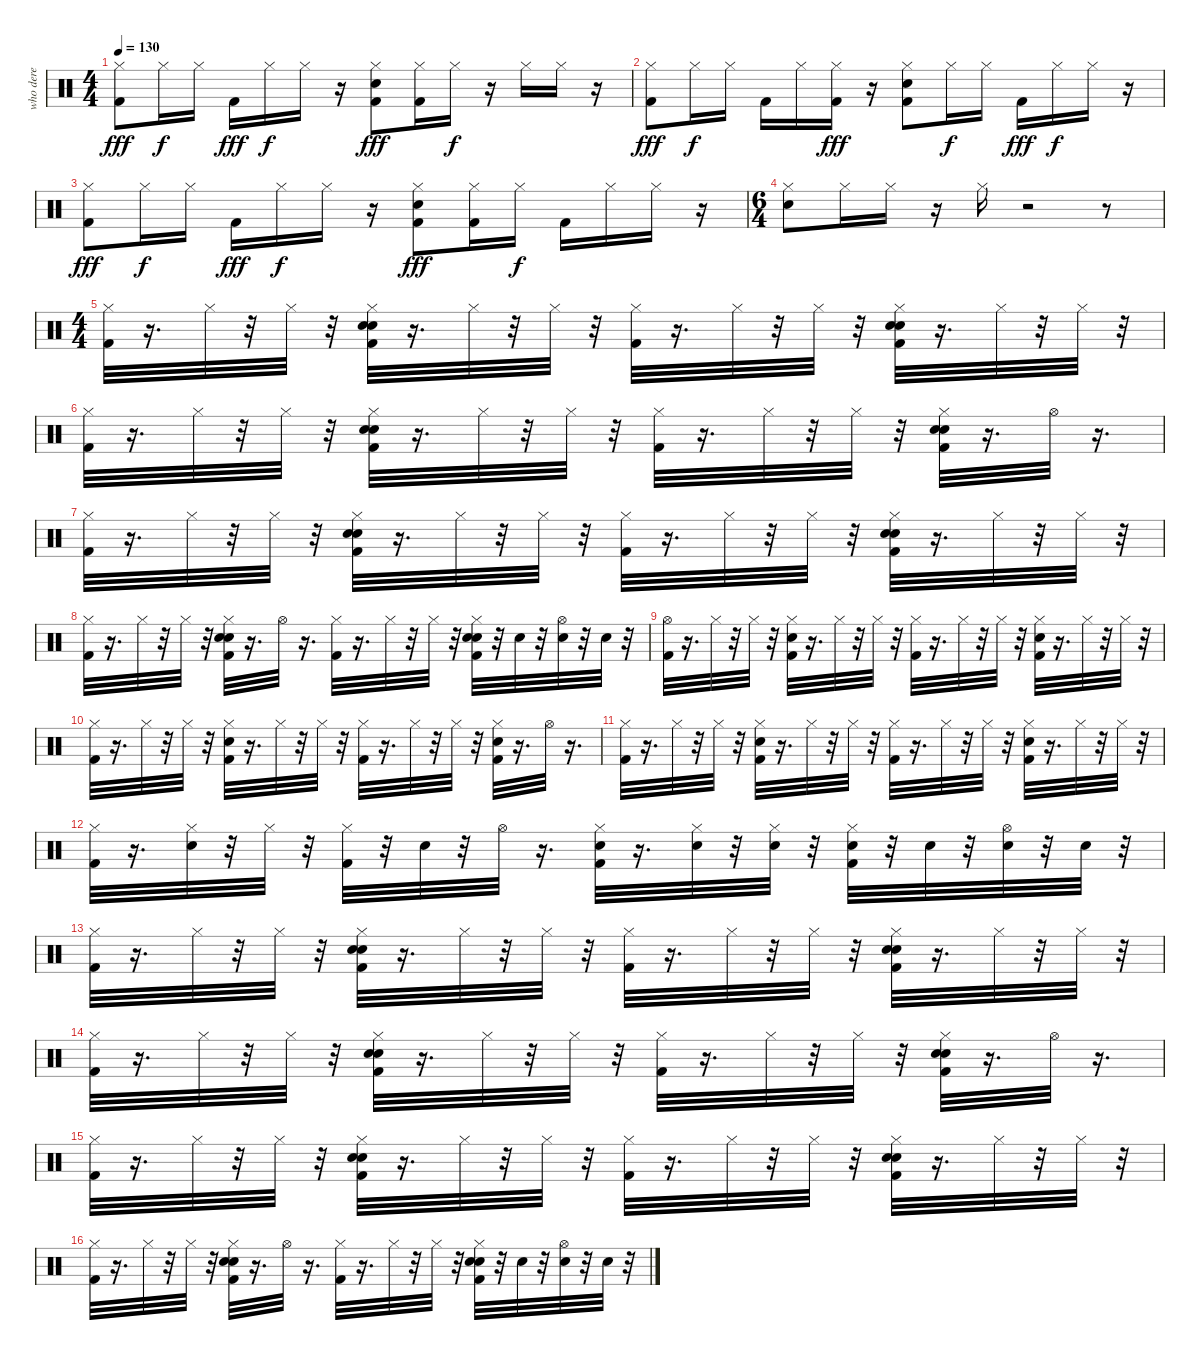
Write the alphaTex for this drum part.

\track ("who dere" "who dere") {instrument percussion}
\staff {score}
\articulation defaults
\ts (4 4)
\tempo 130
\clef neutral
\ks c
("Hi-Hat (closed)" "Kick (hit) 2").8{dy fff} "Hi-Hat (closed)".16{dy f} "Hi-Hat (closed)".16 "Kick (hit) 2".16{dy fff} "Hi-Hat (closed)".16{dy f} "Hi-Hat (closed)".16 r.16 ("Hi-Hat (closed)" "Electric Snare (hit)" "Kick (hit) 2").8{dy fff} ("Hi-Hat (closed)" "Kick (hit) 2").16 "Hi-Hat (closed)".16{dy f} r.16 "Hi-Hat (closed)".16 "Hi-Hat (closed)".16 r.16 |
("Hi-Hat (closed)" "Kick (hit) 2").8{dy fff} "Hi-Hat (closed)".16{dy f} "Hi-Hat (closed)".16 "Kick (hit) 2".16 "Hi-Hat (closed)".16 ("Hi-Hat (closed)" "Kick (hit) 2").16{dy fff} r.16 ("Hi-Hat (closed)" "Electric Snare (hit)" "Kick (hit) 2").8 "Hi-Hat (closed)".16{dy f} "Hi-Hat (closed)".16 "Kick (hit) 2".16{dy fff} "Hi-Hat (closed)".16{dy f} "Hi-Hat (closed)".16 r.16 |
("Hi-Hat (closed)" "Kick (hit) 2").8{dy fff} "Hi-Hat (closed)".16{dy f} "Hi-Hat (closed)".16 "Kick (hit) 2".16{dy fff} "Hi-Hat (closed)".16{dy f} "Hi-Hat (closed)".16 r.16 ("Hi-Hat (closed)" "Electric Snare (hit)" "Kick (hit) 2").8{dy fff} ("Hi-Hat (closed)" "Kick (hit) 2").16 "Hi-Hat (closed)".16{dy f} "Kick (hit) 2".16 "Hi-Hat (closed)".16 "Hi-Hat (closed)".16 r.16 |
\ts (6 4)
("Hi-Hat (closed)" "Electric Snare (hit)").8 "Hi-Hat (closed)".16 "Hi-Hat (closed)".16 r.16 "Hi-Hat (closed)".16 r.2 r.8 |
\ts (4 4)
("Hi-Hat (closed)" "Kick (hit) 2").32 r.16{d} "Hi-Hat (closed)".32 r.32 "Hi-Hat (closed)".32 r.32 ("Hi-Hat (closed)" "Snare (hit) 2" "Kick (hit) 2" "Hand Clap (hit)").32 r.16{d} "Hi-Hat (closed)".32 r.32 "Hi-Hat (closed)".32 r.32 ("Hi-Hat (closed)" "Kick (hit) 2").32 r.16{d} "Hi-Hat (closed)".32 r.32 "Hi-Hat (closed)".32 r.32 ("Hi-Hat (closed)" "Snare (hit) 2" "Kick (hit) 2" "Hand Clap (hit)").32 r.16{d} "Hi-Hat (closed)".32 r.32 "Hi-Hat (closed)".32 r.32 |
("Hi-Hat (closed)" "Kick (hit) 2").32 r.16{d} "Hi-Hat (closed)".32 r.32 "Hi-Hat (closed)".32 r.32 ("Hi-Hat (closed)" "Snare (hit) 2" "Kick (hit) 2" "Hand Clap (hit)").32 r.16{d} "Hi-Hat (closed)".32 r.32 "Hi-Hat (closed)".32 r.32 ("Hi-Hat (closed)" "Kick (hit) 2").32 r.16{d} "Hi-Hat (closed)".32 r.32 "Hi-Hat (closed)".32 r.32 ("Hi-Hat (closed)" "Snare (hit) 2" "Kick (hit) 2" "Hand Clap (hit)").32 r.16{d} "Hi-Hat (open)".32 r.16{d} |
("Hi-Hat (closed)" "Kick (hit) 2").32 r.16{d} "Hi-Hat (closed)".32 r.32 "Hi-Hat (closed)".32 r.32 ("Hi-Hat (closed)" "Snare (hit) 2" "Kick (hit) 2" "Hand Clap (hit)").32 r.16{d} "Hi-Hat (closed)".32 r.32 "Hi-Hat (closed)".32 r.32 ("Hi-Hat (closed)" "Kick (hit) 2").32 r.16{d} "Hi-Hat (closed)".32 r.32 "Hi-Hat (closed)".32 r.32 ("Hi-Hat (closed)" "Snare (hit) 2" "Kick (hit) 2" "Hand Clap (hit)").32 r.16{d} "Hi-Hat (closed)".32 r.32 "Hi-Hat (closed)".32 r.32 |
("Hi-Hat (closed)" "Kick (hit) 2").32 r.16{d} "Hi-Hat (closed)".32 r.32 "Hi-Hat (closed)".32 r.32 ("Hi-Hat (closed)" "Snare (hit) 2" "Kick (hit) 2" "Hand Clap (hit)").32 r.16{d} "Hi-Hat (open)".32 r.16{d} ("Hi-Hat (closed)" "Kick (hit) 2").32 r.16{d} "Hi-Hat (closed)".32 r.32 "Hi-Hat (closed)".32 r.32 ("Hi-Hat (closed)" "Snare (hit) 2" "Kick (hit) 2" "Hand Clap (hit)").32 r.32 "Hand Clap (hit)".32 r.32 ("Hi-Hat (open)" "Hand Clap (hit)").32 r.32 "Hand Clap (hit)".32 r.32 |
("Hi-Hat (open)" "Kick (hit) 2").32 r.16{d} "Hi-Hat (closed)".32 r.32 "Hi-Hat (closed)".32 r.32 ("Hi-Hat (closed)" "Snare (hit) 2" "Kick (hit) 2").32 r.16{d} "Hi-Hat (closed)".32 r.32 "Hi-Hat (closed)".32 r.32 ("Hi-Hat (closed)" "Kick (hit) 2").32 r.16{d} "Hi-Hat (closed)".32 r.32 "Hi-Hat (closed)".32 r.32 ("Hi-Hat (closed)" "Snare (hit) 2" "Kick (hit) 2").32 r.16{d} "Hi-Hat (closed)".32 r.32 "Hi-Hat (closed)".32 r.32 |
("Hi-Hat (closed)" "Kick (hit) 2").32 r.16{d} "Hi-Hat (closed)".32 r.32 "Hi-Hat (closed)".32 r.32 ("Hi-Hat (closed)" "Snare (hit) 2" "Kick (hit) 2").32 r.16{d} "Hi-Hat (closed)".32 r.32 "Hi-Hat (closed)".32 r.32 ("Hi-Hat (closed)" "Kick (hit) 2").32 r.16{d} "Hi-Hat (closed)".32 r.32 "Hi-Hat (closed)".32 r.32 ("Hi-Hat (closed)" "Snare (hit) 2" "Kick (hit) 2").32 r.16{d} "Hi-Hat (open)".32 r.16{d} |
("Hi-Hat (closed)" "Kick (hit) 2").32 r.16{d} "Hi-Hat (closed)".32 r.32 "Hi-Hat (closed)".32 r.32 ("Hi-Hat (closed)" "Snare (hit) 2" "Kick (hit) 2").32 r.16{d} "Hi-Hat (closed)".32 r.32 "Hi-Hat (closed)".32 r.32 ("Hi-Hat (closed)" "Kick (hit) 2").32 r.16{d} "Hi-Hat (closed)".32 r.32 "Hi-Hat (closed)".32 r.32 ("Hi-Hat (closed)" "Snare (hit) 2" "Kick (hit) 2").32 r.16{d} "Hi-Hat (closed)".32 r.32 "Hi-Hat (closed)".32 r.32 |
("Hi-Hat (closed)" "Kick (hit) 2").32 r.16{d} ("Hi-Hat (closed)" "Snare (hit) 2").32 r.32 "Hi-Hat (closed)".32 r.32 ("Hi-Hat (closed)" "Kick (hit) 2").32 r.32 "Snare (hit) 2".32 r.32 "Hi-Hat (open)".32 r.16{d} ("Hi-Hat (closed)" "Snare (hit) 2" "Kick (hit) 2").32 r.16{d} ("Hi-Hat (closed)" "Snare (hit) 2").32 r.32 ("Hi-Hat (closed)" "Snare (hit) 2").32 r.32 ("Hi-Hat (closed)" "Snare (hit) 2" "Kick (hit) 2").32 r.32 "Snare (hit) 2".32 r.32 ("Hi-Hat (open)" "Snare (hit) 2").32 r.32 "Snare (hit) 2".32 r.32 |
("Hi-Hat (closed)" "Kick (hit) 2").32 r.16{d} "Hi-Hat (closed)".32 r.32 "Hi-Hat (closed)".32 r.32 ("Hi-Hat (closed)" "Snare (hit) 2" "Kick (hit) 2" "Hand Clap (hit)").32 r.16{d} "Hi-Hat (closed)".32 r.32 "Hi-Hat (closed)".32 r.32 ("Hi-Hat (closed)" "Kick (hit) 2").32 r.16{d} "Hi-Hat (closed)".32 r.32 "Hi-Hat (closed)".32 r.32 ("Hi-Hat (closed)" "Snare (hit) 2" "Kick (hit) 2" "Hand Clap (hit)").32 r.16{d} "Hi-Hat (closed)".32 r.32 "Hi-Hat (closed)".32 r.32 |
("Hi-Hat (closed)" "Kick (hit) 2").32 r.16{d} "Hi-Hat (closed)".32 r.32 "Hi-Hat (closed)".32 r.32 ("Hi-Hat (closed)" "Snare (hit) 2" "Kick (hit) 2" "Hand Clap (hit)").32 r.16{d} "Hi-Hat (closed)".32 r.32 "Hi-Hat (closed)".32 r.32 ("Hi-Hat (closed)" "Kick (hit) 2").32 r.16{d} "Hi-Hat (closed)".32 r.32 "Hi-Hat (closed)".32 r.32 ("Hi-Hat (closed)" "Snare (hit) 2" "Kick (hit) 2" "Hand Clap (hit)").32 r.16{d} "Hi-Hat (open)".32 r.16{d} |
("Hi-Hat (closed)" "Kick (hit) 2").32 r.16{d} "Hi-Hat (closed)".32 r.32 "Hi-Hat (closed)".32 r.32 ("Hi-Hat (closed)" "Snare (hit) 2" "Kick (hit) 2" "Hand Clap (hit)").32 r.16{d} "Hi-Hat (closed)".32 r.32 "Hi-Hat (closed)".32 r.32 ("Hi-Hat (closed)" "Kick (hit) 2").32 r.16{d} "Hi-Hat (closed)".32 r.32 "Hi-Hat (closed)".32 r.32 ("Hi-Hat (closed)" "Snare (hit) 2" "Kick (hit) 2" "Hand Clap (hit)").32 r.16{d} "Hi-Hat (closed)".32 r.32 "Hi-Hat (closed)".32 r.32 |
("Hi-Hat (closed)" "Kick (hit) 2").32 r.16{d} "Hi-Hat (closed)".32 r.32 "Hi-Hat (closed)".32 r.32 ("Hi-Hat (closed)" "Snare (hit) 2" "Kick (hit) 2" "Hand Clap (hit)").32 r.16{d} "Hi-Hat (open)".32 r.16{d} ("Hi-Hat (closed)" "Kick (hit) 2").32 r.16{d} "Hi-Hat (closed)".32 r.32 "Hi-Hat (closed)".32 r.32 ("Hi-Hat (closed)" "Snare (hit) 2" "Kick (hit) 2" "Hand Clap (hit)").32 r.32 "Hand Clap (hit)".32 r.32 ("Hi-Hat (open)" "Hand Clap (hit)").32 r.32 "Hand Clap (hit)".32 r.32
